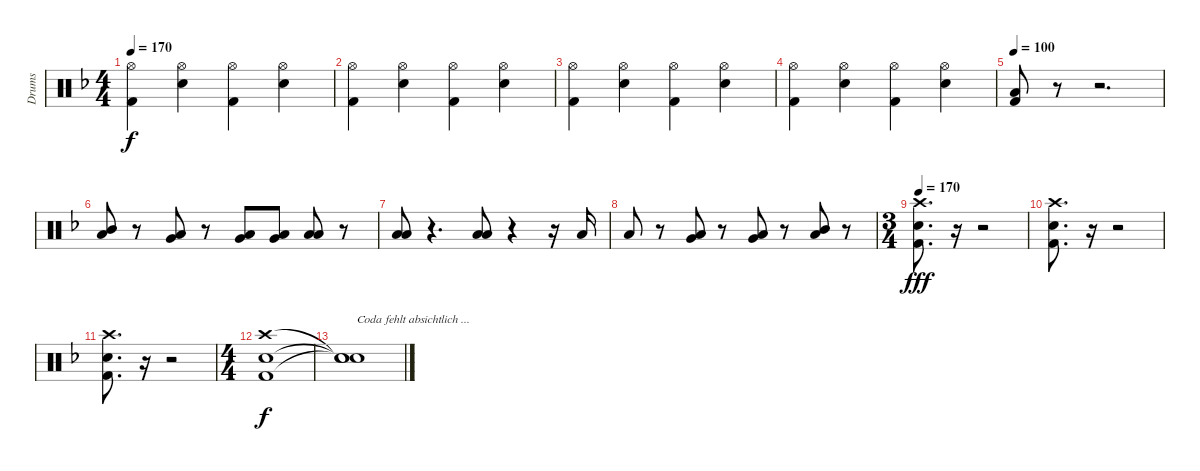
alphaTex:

\track ("Drums" "Drums") {instrument percussion}
\staff {score}
\articulation defaults
\ts (4 4)
\tempo 170
\clef neutral
\ks f
("Hi-Hat (open)" "Kick (hit) 2").4{dy f} ("Hi-Hat (open)" "Electric Snare (hit)").4 ("Hi-Hat (open)" "Kick (hit) 2").4 ("Hi-Hat (open)" "Electric Snare (hit)").4 |
("Hi-Hat (open)" "Kick (hit) 2").4 ("Hi-Hat (open)" "Electric Snare (hit)").4 ("Hi-Hat (open)" "Kick (hit) 2").4 ("Hi-Hat (open)" "Electric Snare (hit)").4 |
("Hi-Hat (open)" "Kick (hit) 2").4 ("Hi-Hat (open)" "Electric Snare (hit)").4 ("Hi-Hat (open)" "Kick (hit) 2").4 ("Hi-Hat (open)" "Electric Snare (hit)").4 |
("Hi-Hat (open)" "Kick (hit) 2").4 ("Hi-Hat (open)" "Electric Snare (hit)").4 ("Hi-Hat (open)" "Kick (hit) 2").4 ("Hi-Hat (open)" "Electric Snare (hit)").4 |
\tempo 100
("Low Floor Tom (hit)" "Kick (hit) 2").8 r.8 r.2{d} |
("Mid Tom (hit)" "Low Tom (hit)").8 r.8 ("Low Tom (hit)" "Very Low Tom (hit)").8 r.8 ("Very Low Tom (hit)" "Low Floor Tom (hit)").8 ("Very Low Tom (hit)" "Low Floor Tom (hit)").8 ("Low Floor Tom (hit)" "Low Floor Tom (hit)").8 r.8 |
("Low Floor Tom (hit)" "Low Floor Tom (hit)").8 r.4{d} ("Low Floor Tom (hit)" "Low Floor Tom (hit)").8 r.4 r.16 "Low Floor Tom (hit)".16 |
"Low Floor Tom (hit)".8 r.8 ("Very Low Tom (hit)" "Low Floor Tom (hit)").8 r.8 ("Low Tom (hit)" "Very Low Tom (hit)").8 r.8 ("Mid Tom (hit)" "Low Tom (hit)").8 r.8 |
\ts (3 4)
\tempo 170
("Crash high (hit)" "Electric Snare (hit)" "Kick (hit) 2").8{d dy fff} r.16 r.2 |
("Crash high (hit)" "Electric Snare (hit)" "Kick (hit) 2").8{d} r.16 r.2 |
("Crash high (hit)" "Electric Snare (hit)" "Kick (hit) 2").8{d} r.16 r.2 |
\ts (4 4)
("Crash high (hit)" "Electric Snare (hit)" "Kick (hit) 2").1{dy f} |
("Snare (hit)"{t} "Snare (hit)"{t} "Snare (hit)"{t}).1{txt "Coda fehlt absichtlich ..."}
